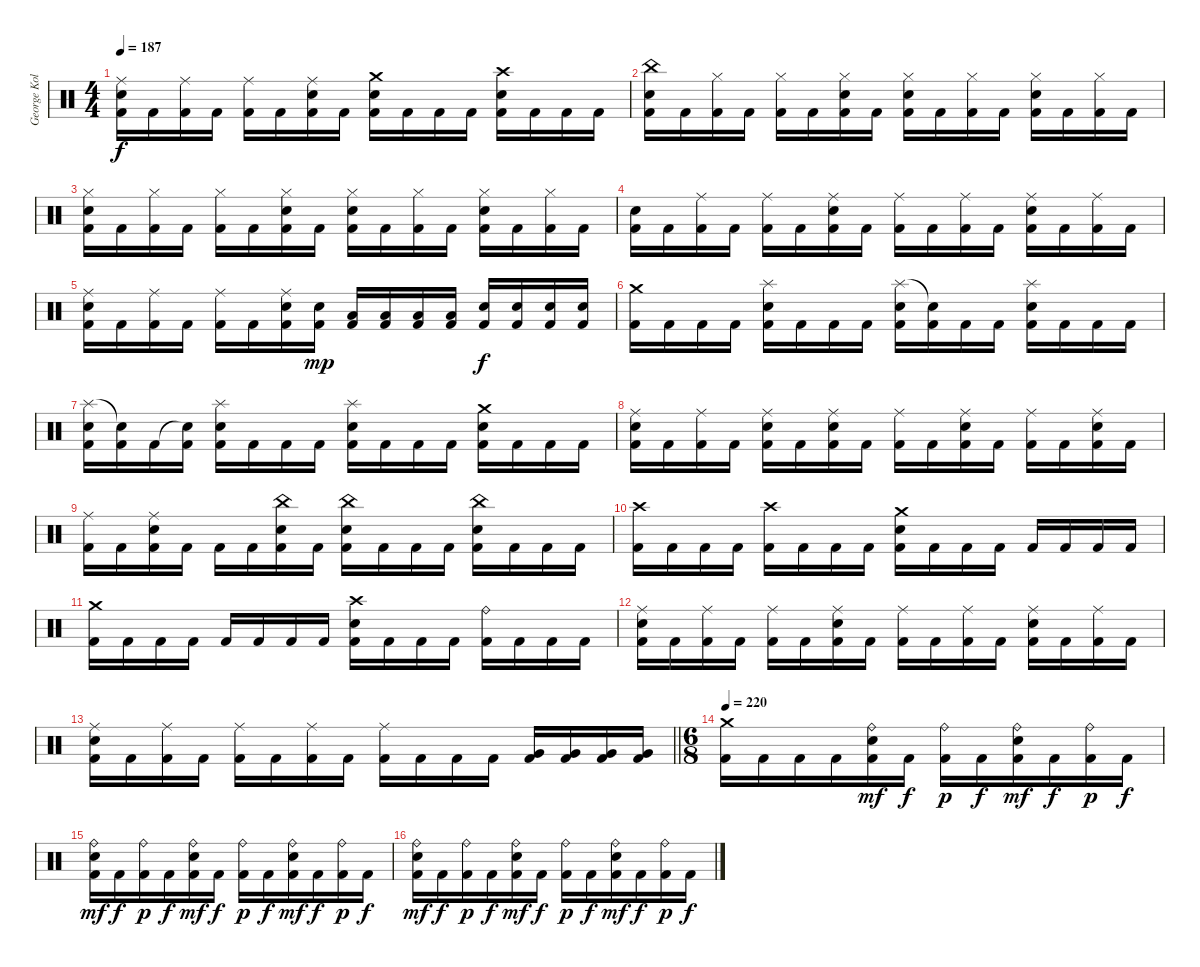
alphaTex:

\track ("George Kollias" "George Kol") {instrument percussion}
\staff {score}
\articulation defaults
\ts (4 4)
\tempo 187
\clef neutral
\ks c
("Ride (middle)" "Electric Snare (hit)" "Kick (hit) 2").16{dy f} "Kick (hit) 2".16 ("Ride (middle)" "Kick (hit) 2").16 "Kick (hit) 2".16 ("Ride (middle)" "Kick (hit) 2").16 "Kick (hit) 2".16 ("Ride (middle)" "Electric Snare (hit)" "Kick (hit) 2").16 "Kick (hit) 2".16 ("Crash medium (hit)" "Electric Snare (hit)" "Kick (hit) 2").16 "Kick (hit) 2".16 "Kick (hit) 2".16 "Kick (hit) 2".16 ("Crash high (hit)" "Electric Snare (hit)" "Kick (hit) 2").16 "Kick (hit) 2".16 "Kick (hit) 2".16 "Kick (hit) 2".16 |
("China (hit)" "Electric Snare (hit)" "Kick (hit) 2").16 "Kick (hit) 2".16 ("Hi-Hat (closed)" "Kick (hit) 2").16 "Kick (hit) 2".16 ("Hi-Hat (closed)" "Kick (hit) 2").16 "Kick (hit) 2".16 ("Hi-Hat (closed)" "Electric Snare (hit)" "Kick (hit) 2").16 "Kick (hit) 2".16 ("Hi-Hat (closed)" "Electric Snare (hit)" "Kick (hit) 2").16 "Kick (hit) 2".16 ("Hi-Hat (closed)" "Kick (hit) 2").16 "Kick (hit) 2".16 ("Hi-Hat (closed)" "Electric Snare (hit)" "Kick (hit) 2").16 "Kick (hit) 2".16 ("Hi-Hat (closed)" "Kick (hit) 2").16 "Kick (hit) 2".16 |
("Hi-Hat (closed)" "Electric Snare (hit)" "Kick (hit) 2").16 "Kick (hit) 2".16 ("Hi-Hat (closed)" "Kick (hit) 2").16 "Kick (hit) 2".16 ("Hi-Hat (closed)" "Kick (hit) 2").16 "Kick (hit) 2".16 ("Hi-Hat (closed)" "Electric Snare (hit)" "Kick (hit) 2").16 "Kick (hit) 2".16 ("Hi-Hat (closed)" "Electric Snare (hit)" "Kick (hit) 2").16 "Kick (hit) 2".16 ("Hi-Hat (closed)" "Kick (hit) 2").16 "Kick (hit) 2".16 ("Hi-Hat (closed)" "Electric Snare (hit)" "Kick (hit) 2").16 "Kick (hit) 2".16 ("Hi-Hat (closed)" "Kick (hit) 2").16 "Kick (hit) 2".16 |
("Electric Snare (hit)" "Kick (hit) 2").16 "Kick (hit) 2".16 ("Ride (middle)" "Kick (hit) 2").16 "Kick (hit) 2".16 ("Ride (middle)" "Kick (hit) 2").16 "Kick (hit) 2".16 ("Ride (middle)" "Electric Snare (hit)" "Kick (hit) 2").16 "Kick (hit) 2".16 ("Ride (middle)" "Kick (hit) 2").16 "Kick (hit) 2".16 ("Ride (middle)" "Kick (hit) 2").16 "Kick (hit) 2".16 ("Ride (middle)" "Electric Snare (hit)" "Kick (hit) 2").16 "Kick (hit) 2".16 ("Ride (middle)" "Kick (hit) 2").16 "Kick (hit) 2".16 |
("Ride (middle)" "Electric Snare (hit)" "Kick (hit) 2").16 "Kick (hit) 2".16 ("Ride (middle)" "Kick (hit) 2").16 "Kick (hit) 2".16 ("Ride (middle)" "Kick (hit) 2").16 "Kick (hit) 2".16 ("Ride (middle)" "Electric Snare (hit)" "Kick (hit) 2").16 ("Electric Snare (hit)" "Kick (hit) 2").16{dy mp} ("Low Tom (hit)" "Kick (hit) 2").16 ("Low Tom (hit)" "Kick (hit) 2").16 ("Low Tom (hit)" "Kick (hit) 2").16 ("Low Tom (hit)" "Kick (hit) 2").16 ("Electric Snare (hit)" "Kick (hit) 2").16{dy f} ("Electric Snare (hit)" "Kick (hit) 2").16 ("Electric Snare (hit)" "Kick (hit) 2").16 ("Electric Snare (hit)" "Kick (hit) 2").16 |
("Crash medium (hit)" "Kick (hit) 2").16 "Kick (hit) 2".16 "Kick (hit) 2".16 "Kick (hit) 2".16 ("Splash (hit)" "Electric Snare (hit)" "Kick (hit) 2").16 "Kick (hit) 2".16 "Kick (hit) 2".16 "Kick (hit) 2".16 ("Splash (hit)" "Electric Snare (hit)" "Kick (hit) 2").16 ("Snare (hit)"{t} "Kick (hit) 2").16 "Kick (hit) 2".16 "Kick (hit) 2".16 ("Splash (hit)" "Electric Snare (hit)" "Kick (hit) 2").16 "Kick (hit) 2".16 "Kick (hit) 2".16 "Kick (hit) 2".16 |
("Splash (hit)" "Electric Snare (hit)" "Kick (hit) 2").16 ("Snare (hit)"{t} "Kick (hit) 2").16 "Kick (hit) 2".16 ("Snare (hit)"{t} "Kick (hit) 2").16 ("Splash (hit)" "Electric Snare (hit)" "Kick (hit) 2").16 "Kick (hit) 2".16 "Kick (hit) 2".16 "Kick (hit) 2".16 ("Splash (hit)" "Electric Snare (hit)" "Kick (hit) 2").16 "Kick (hit) 2".16 "Kick (hit) 2".16 "Kick (hit) 2".16 ("Crash medium (hit)" "Electric Snare (hit)" "Kick (hit) 2").16 "Kick (hit) 2".16 "Kick (hit) 2".16 "Kick (hit) 2".16 |
("Ride (middle)" "Electric Snare (hit)" "Kick (hit) 2").16 "Kick (hit) 2".16 ("Ride (middle)" "Kick (hit) 2").16 "Kick (hit) 2".16 ("Ride (middle)" "Electric Snare (hit)" "Kick (hit) 2").16 "Kick (hit) 2".16 ("Ride (middle)" "Electric Snare (hit)" "Kick (hit) 2").16 "Kick (hit) 2".16 ("Ride (middle)" "Kick (hit) 2").16 "Kick (hit) 2".16 ("Ride (middle)" "Electric Snare (hit)" "Kick (hit) 2").16 "Kick (hit) 2".16 ("Ride (middle)" "Kick (hit) 2").16 "Kick (hit) 2".16 ("Ride (middle)" "Electric Snare (hit)" "Kick (hit) 2").16 "Kick (hit) 2".16 |
("Ride (middle)" "Kick (hit) 2").16 "Kick (hit) 2".16 ("Ride (middle)" "Electric Snare (hit)" "Kick (hit) 2").16 "Kick (hit) 2".16 "Kick (hit) 2".16 "Kick (hit) 2".16 ("China (hit)" "Electric Snare (hit)" "Kick (hit) 2").16 "Kick (hit) 2".16 ("China (hit)" "Electric Snare (hit)" "Kick (hit) 2").16 "Kick (hit) 2".16 "Kick (hit) 2".16 "Kick (hit) 2".16 ("China (hit)" "Electric Snare (hit)" "Kick (hit) 2").16 "Kick (hit) 2".16 "Kick (hit) 2".16 "Kick (hit) 2".16 |
("Crash high (hit)" "Kick (hit) 2").16 "Kick (hit) 2".16 "Kick (hit) 2".16 "Kick (hit) 2".16 ("Crash high (hit)" "Kick (hit) 2").16 "Kick (hit) 2".16 "Kick (hit) 2".16 "Kick (hit) 2".16 ("Crash medium (hit)" "Electric Snare (hit)" "Kick (hit) 2").16 "Kick (hit) 2".16 "Kick (hit) 2".16 "Kick (hit) 2".16 "Kick (hit) 2".16 "Kick (hit) 2".16 "Kick (hit) 2".16 "Kick (hit) 2".16 |
("Crash medium (hit)" "Kick (hit) 2").16 "Kick (hit) 2".16 "Kick (hit) 2".16 "Kick (hit) 2".16 "Kick (hit) 2".16 "Kick (hit) 2".16 "Kick (hit) 2".16 "Kick (hit) 2".16 ("Crash high (hit)" "Electric Snare (hit)" "Kick (hit) 2").16 "Kick (hit) 2".16 "Kick (hit) 2".16 "Kick (hit) 2".16 ("Ride (bell)" "Kick (hit) 2").16 "Kick (hit) 2".16 "Kick (hit) 2".16 "Kick (hit) 2".16 |
("Ride (middle)" "Electric Snare (hit)" "Kick (hit) 2").16 "Kick (hit) 2".16 ("Ride (middle)" "Kick (hit) 2").16 "Kick (hit) 2".16 ("Ride (middle)" "Kick (hit) 2").16 "Kick (hit) 2".16 ("Ride (middle)" "Electric Snare (hit)" "Kick (hit) 2").16 "Kick (hit) 2".16 ("Ride (middle)" "Kick (hit) 2").16 "Kick (hit) 2".16 ("Ride (middle)" "Kick (hit) 2").16 "Kick (hit) 2".16 ("Ride (middle)" "Electric Snare (hit)" "Kick (hit) 2").16 "Kick (hit) 2".16 ("Ride (middle)" "Kick (hit) 2").16 "Kick (hit) 2".16 |
\barLineRight lightlight
("Ride (middle)" "Electric Snare (hit)" "Kick (hit) 2").16 "Kick (hit) 2".16 ("Ride (middle)" "Kick (hit) 2").16 "Kick (hit) 2".16 ("Ride (middle)" "Kick (hit) 2").16 "Kick (hit) 2".16 ("Ride (middle)" "Kick (hit) 2").16 "Kick (hit) 2".16 ("Ride (middle)" "Kick (hit) 2").16 "Kick (hit) 2".16 "Kick (hit) 2".16 "Kick (hit) 2".16 ("Very Low Tom (hit)" "Kick (hit) 2").16 ("Very Low Tom (hit)" "Kick (hit) 2").16 ("Very Low Tom (hit)" "Kick (hit) 2").16 ("Very Low Tom (hit)" "Kick (hit) 2").16 |
\ts (6 8)
\section ("" "")
\tempo 220
("Crash medium (hit)" "Kick (hit) 2").16 "Kick (hit) 2".16 "Kick (hit) 2".16 "Kick (hit) 2".16 ("Ride (bell)" "Electric Snare (hit)" "Kick (hit) 2").16{dy mf} "Kick (hit) 2".16{dy f} ("Ride (bell)" "Kick (hit) 2").16{dy p} "Kick (hit) 2".16{dy f} ("Ride (bell)" "Electric Snare (hit)" "Kick (hit) 2").16{dy mf} "Kick (hit) 2".16{dy f} ("Ride (bell)" "Kick (hit) 2").16{dy p} "Kick (hit) 2".16{dy f} |
("Ride (bell)" "Electric Snare (hit)" "Kick (hit) 2").16{dy mf} "Kick (hit) 2".16{dy f} ("Ride (bell)" "Kick (hit) 2").16{dy p} "Kick (hit) 2".16{dy f} ("Ride (bell)" "Electric Snare (hit)" "Kick (hit) 2").16{dy mf} "Kick (hit) 2".16{dy f} ("Ride (bell)" "Kick (hit) 2").16{dy p} "Kick (hit) 2".16{dy f} ("Ride (bell)" "Electric Snare (hit)" "Kick (hit) 2").16{dy mf} "Kick (hit) 2".16{dy f} ("Ride (bell)" "Kick (hit) 2").16{dy p} "Kick (hit) 2".16{dy f} |
("Ride (bell)" "Electric Snare (hit)" "Kick (hit) 2").16{dy mf} "Kick (hit) 2".16{dy f} ("Ride (bell)" "Kick (hit) 2").16{dy p} "Kick (hit) 2".16{dy f} ("Ride (bell)" "Electric Snare (hit)" "Kick (hit) 2").16{dy mf} "Kick (hit) 2".16{dy f} ("Ride (bell)" "Kick (hit) 2").16{dy p} "Kick (hit) 2".16{dy f} ("Ride (bell)" "Electric Snare (hit)" "Kick (hit) 2").16{dy mf} "Kick (hit) 2".16{dy f} ("Ride (bell)" "Kick (hit) 2").16{dy p} "Kick (hit) 2".16{dy f}
